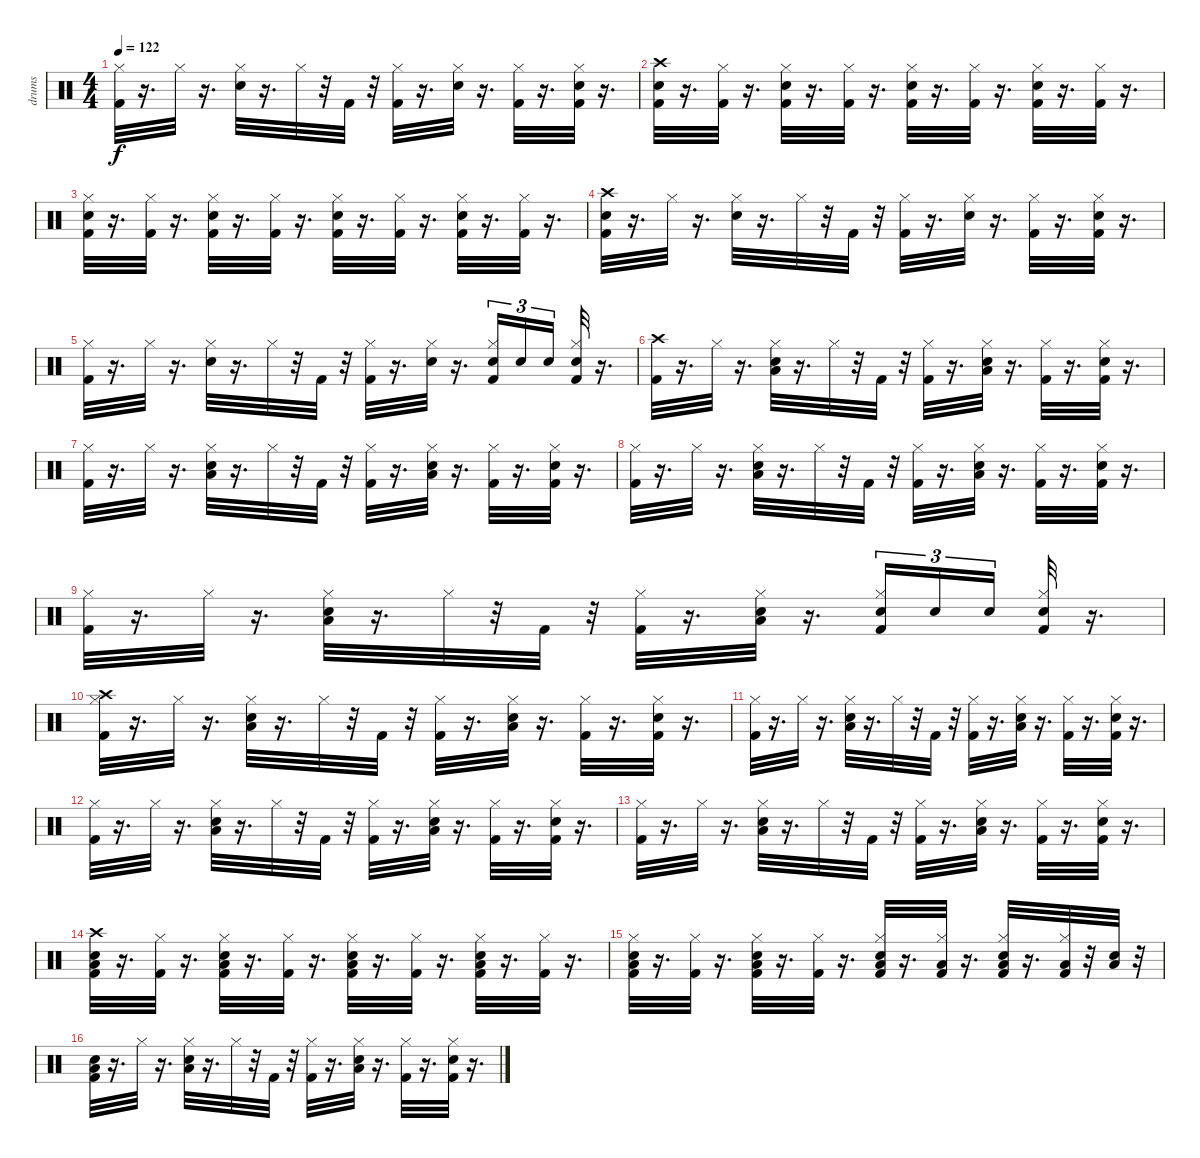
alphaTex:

\track ("drums" "drums") {instrument percussion}
\staff {score}
\articulation defaults
\ts (4 4)
\tempo 122
\clef neutral
\ks c
("Kick (hit) 2" "Hi-Hat (closed)").32{dy f} r.16{d} "Hi-Hat (closed)".32 r.16{d} ("Hi-Hat (closed)" "Snare (hit) 2").32 r.16{d} "Hi-Hat (closed)".32 r.32 "Kick (hit) 2".32 r.32 ("Hi-Hat (closed)" "Kick (hit) 2").32 r.16{d} ("Hi-Hat (closed)" "Snare (hit) 2").32 r.16{d} ("Hi-Hat (closed)" "Kick (hit) 2").32 r.16{d} ("Snare (hit) 2" "Hi-Hat (closed)" "Kick (hit) 2").32 r.16{d} |
("Snare (hit) 2" "Kick (hit) 2" "Crash high (hit)").32 r.16{d} ("Kick (hit) 2" "Hi-Hat (closed)").32 r.16{d} ("Kick (hit) 2" "Hi-Hat (closed)" "Snare (hit) 2").32 r.16{d} ("Hi-Hat (closed)" "Kick (hit) 2").32 r.16{d} ("Snare (hit) 2" "Hi-Hat (closed)" "Kick (hit) 2").32 r.16{d} ("Kick (hit) 2" "Hi-Hat (closed)").32 r.16{d} ("Hi-Hat (closed)" "Kick (hit) 2" "Snare (hit) 2").32 r.16{d} ("Hi-Hat (closed)" "Kick (hit) 2").32 r.16{d} |
("Snare (hit) 2" "Hi-Hat (closed)" "Kick (hit) 2").32 r.16{d} ("Kick (hit) 2" "Hi-Hat (closed)").32 r.16{d} ("Kick (hit) 2" "Hi-Hat (closed)" "Snare (hit) 2").32 r.16{d} ("Hi-Hat (closed)" "Kick (hit) 2").32 r.16{d} ("Snare (hit) 2" "Hi-Hat (closed)" "Kick (hit) 2").32 r.16{d} ("Hi-Hat (closed)" "Kick (hit) 2").32 r.16{d} ("Hi-Hat (closed)" "Snare (hit) 2" "Kick (hit) 2").32 r.16{d} ("Kick (hit) 2" "Hi-Hat (closed)").32 r.16{d} |
("Snare (hit) 2" "Kick (hit) 2" "Crash high (hit)").32 r.16{d} "Hi-Hat (closed)".32 r.16{d} ("Hi-Hat (closed)" "Snare (hit) 2").32 r.16{d} "Hi-Hat (closed)".32 r.32 "Kick (hit) 2".32 r.32 ("Hi-Hat (closed)" "Kick (hit) 2").32 r.16{d} ("Hi-Hat (closed)" "Snare (hit) 2").32 r.16{d} ("Hi-Hat (closed)" "Kick (hit) 2").32 r.16{d} ("Snare (hit) 2" "Hi-Hat (closed)" "Kick (hit) 2").32 r.16{d} |
("Kick (hit) 2" "Hi-Hat (closed)").32 r.16{d} "Hi-Hat (closed)".32 r.16{d} ("Hi-Hat (closed)" "Snare (hit) 2").32 r.16{d} "Hi-Hat (closed)".32 r.32 "Kick (hit) 2".32 r.32 ("Hi-Hat (closed)" "Kick (hit) 2").32 r.16{d} ("Hi-Hat (closed)" "Snare (hit) 2").32 r.16{d} ("Snare (hit) 2" "Hi-Hat (closed)" "Kick (hit) 2").16{tu (3 2)} "Snare (hit) 2".16{tu (3 2)} "Snare (hit) 2".16{tu (3 2)} ("Snare (hit) 2" "Hi-Hat (closed)" "Kick (hit) 2").32 r.16{d} |
("Kick (hit) 2" "Crash high (hit)").32 r.16{d} "Hi-Hat (closed)".32 r.16{d} ("Low Floor Tom (hit)" "Hi-Hat (closed)" "Snare (hit) 2").32 r.16{d} "Hi-Hat (closed)".32 r.32 "Kick (hit) 2".32 r.32 ("Hi-Hat (closed)" "Kick (hit) 2").32 r.16{d} ("Low Floor Tom (hit)" "Hi-Hat (closed)" "Snare (hit) 2").32 r.16{d} ("Hi-Hat (closed)" "Kick (hit) 2").32 r.16{d} ("Snare (hit) 2" "Hi-Hat (closed)" "Kick (hit) 2").32 r.16{d} |
("Kick (hit) 2" "Hi-Hat (closed)").32 r.16{d} "Hi-Hat (closed)".32 r.16{d} ("Low Floor Tom (hit)" "Hi-Hat (closed)" "Snare (hit) 2").32 r.16{d} "Hi-Hat (closed)".32 r.32 "Kick (hit) 2".32 r.32 ("Hi-Hat (closed)" "Kick (hit) 2").32 r.16{d} ("Low Floor Tom (hit)" "Hi-Hat (closed)" "Snare (hit) 2").32 r.16{d} ("Hi-Hat (closed)" "Kick (hit) 2").32 r.16{d} ("Snare (hit) 2" "Hi-Hat (closed)" "Kick (hit) 2").32 r.16{d} |
("Kick (hit) 2" "Hi-Hat (closed)").32 r.16{d} "Hi-Hat (closed)".32 r.16{d} ("Low Floor Tom (hit)" "Hi-Hat (closed)" "Snare (hit) 2").32 r.16{d} "Hi-Hat (closed)".32 r.32 "Kick (hit) 2".32 r.32 ("Hi-Hat (closed)" "Kick (hit) 2").32 r.16{d} ("Low Floor Tom (hit)" "Hi-Hat (closed)" "Snare (hit) 2").32 r.16{d} ("Hi-Hat (closed)" "Kick (hit) 2").32 r.16{d} ("Snare (hit) 2" "Hi-Hat (closed)" "Kick (hit) 2").32 r.16{d} |
("Kick (hit) 2" "Hi-Hat (closed)").32 r.16{d} "Hi-Hat (closed)".32 r.16{d} ("Low Floor Tom (hit)" "Hi-Hat (closed)" "Snare (hit) 2").32 r.16{d} "Hi-Hat (closed)".32 r.32 "Kick (hit) 2".32 r.32 ("Hi-Hat (closed)" "Kick (hit) 2").32 r.16{d} ("Low Floor Tom (hit)" "Hi-Hat (closed)" "Snare (hit) 2").32 r.16{d} ("Snare (hit) 2" "Hi-Hat (closed)" "Kick (hit) 2").16{tu (3 2)} "Snare (hit) 2".16{tu (3 2)} "Snare (hit) 2".16{tu (3 2)} ("Snare (hit) 2" "Hi-Hat (closed)" "Kick (hit) 2").32 r.16{d} |
("Crash high (hit)" "Kick (hit) 2" "Hi-Hat (closed)").32 r.16{d} "Hi-Hat (closed)".32 r.16{d} ("Low Floor Tom (hit)" "Hi-Hat (closed)" "Snare (hit) 2").32 r.16{d} "Hi-Hat (closed)".32 r.32 "Kick (hit) 2".32 r.32 ("Hi-Hat (closed)" "Kick (hit) 2").32 r.16{d} ("Low Floor Tom (hit)" "Hi-Hat (closed)" "Snare (hit) 2").32 r.16{d} ("Hi-Hat (closed)" "Kick (hit) 2").32 r.16{d} ("Snare (hit) 2" "Hi-Hat (closed)" "Kick (hit) 2").32 r.16{d} |
("Kick (hit) 2" "Hi-Hat (closed)").32 r.16{d} "Hi-Hat (closed)".32 r.16{d} ("Low Floor Tom (hit)" "Hi-Hat (closed)" "Snare (hit) 2").32 r.16{d} "Hi-Hat (closed)".32 r.32 "Kick (hit) 2".32 r.32 ("Hi-Hat (closed)" "Kick (hit) 2").32 r.16{d} ("Low Floor Tom (hit)" "Hi-Hat (closed)" "Snare (hit) 2").32 r.16{d} ("Hi-Hat (closed)" "Kick (hit) 2").32 r.16{d} ("Snare (hit) 2" "Hi-Hat (closed)" "Kick (hit) 2").32 r.16{d} |
("Kick (hit) 2" "Hi-Hat (closed)").32 r.16{d} "Hi-Hat (closed)".32 r.16{d} ("Hi-Hat (closed)" "Snare (hit) 2" "Low Floor Tom (hit)").32 r.16{d} "Hi-Hat (closed)".32 r.32 "Kick (hit) 2".32 r.32 ("Hi-Hat (closed)" "Kick (hit) 2").32 r.16{d} ("Hi-Hat (closed)" "Snare (hit) 2" "Low Floor Tom (hit)").32 r.16{d} ("Hi-Hat (closed)" "Kick (hit) 2").32 r.16{d} ("Snare (hit) 2" "Hi-Hat (closed)" "Kick (hit) 2").32 r.16{d} |
("Kick (hit) 2" "Hi-Hat (closed)").32 r.16{d} "Hi-Hat (closed)".32 r.16{d} ("Low Floor Tom (hit)" "Hi-Hat (closed)" "Snare (hit) 2").32 r.16{d} "Hi-Hat (closed)".32 r.32 "Kick (hit) 2".32 r.32 ("Hi-Hat (closed)" "Kick (hit) 2").32 r.16{d} ("Low Floor Tom (hit)" "Hi-Hat (closed)" "Snare (hit) 2").32 r.16{d} ("Hi-Hat (closed)" "Kick (hit) 2").32 r.16{d} ("Snare (hit) 2" "Hi-Hat (closed)" "Kick (hit) 2").32 r.16{d} |
("Low Floor Tom (hit)" "Crash high (hit)" "Snare (hit) 2" "Kick (hit) 2").32 r.16{d} ("Kick (hit) 2" "Hi-Hat (closed)").32 r.16{d} ("Low Floor Tom (hit)" "Hi-Hat (closed)" "Kick (hit) 2" "Snare (hit) 2").32 r.16{d} ("Kick (hit) 2" "Hi-Hat (closed)").32 r.16{d} ("Kick (hit) 2" "Snare (hit) 2" "Hi-Hat (closed)" "Low Floor Tom (hit)").32 r.16{d} ("Kick (hit) 2" "Hi-Hat (closed)").32 r.16{d} ("Low Floor Tom (hit)" "Kick (hit) 2" "Hi-Hat (closed)" "Snare (hit) 2").32 r.16{d} ("Kick (hit) 2" "Hi-Hat (closed)").32 r.16{d} |
("Low Floor Tom (hit)" "Snare (hit) 2" "Hi-Hat (closed)" "Kick (hit) 2").32 r.16{d} ("Kick (hit) 2" "Hi-Hat (closed)").32 r.16{d} ("Low Floor Tom (hit)" "Snare (hit) 2" "Kick (hit) 2" "Hi-Hat (closed)").32 r.16{d} ("Hi-Hat (closed)" "Kick (hit) 2").32 r.16{d} ("Low Floor Tom (hit)" "Snare (hit) 2" "Hi-Hat (closed)" "Kick (hit) 2").32 r.16{d} ("Low Floor Tom (hit)" "Kick (hit) 2" "Hi-Hat (closed)").32 r.16{d} ("Low Floor Tom (hit)" "Kick (hit) 2" "Hi-Hat (closed)" "Snare (hit) 2").32 r.16{d} ("Low Floor Tom (hit)" "Kick (hit) 2" "Hi-Hat (closed)").32 r.32 ("Snare (hit) 2" "Low Floor Tom (hit)").32 r.32 |
("Low Floor Tom (hit)" "Snare (hit) 2" "Kick (hit) 2").32 r.16{d} "Hi-Hat (closed)".32 r.16{d} ("Low Floor Tom (hit)" "Hi-Hat (closed)" "Snare (hit) 2").32 r.16{d} "Hi-Hat (closed)".32 r.32 "Kick (hit) 2".32 r.32 ("Hi-Hat (closed)" "Kick (hit) 2").32 r.16{d} ("Low Floor Tom (hit)" "Hi-Hat (closed)" "Snare (hit) 2").32 r.16{d} ("Hi-Hat (closed)" "Kick (hit) 2").32 r.16{d} ("Snare (hit) 2" "Hi-Hat (closed)" "Kick (hit) 2").32 r.16{d}
